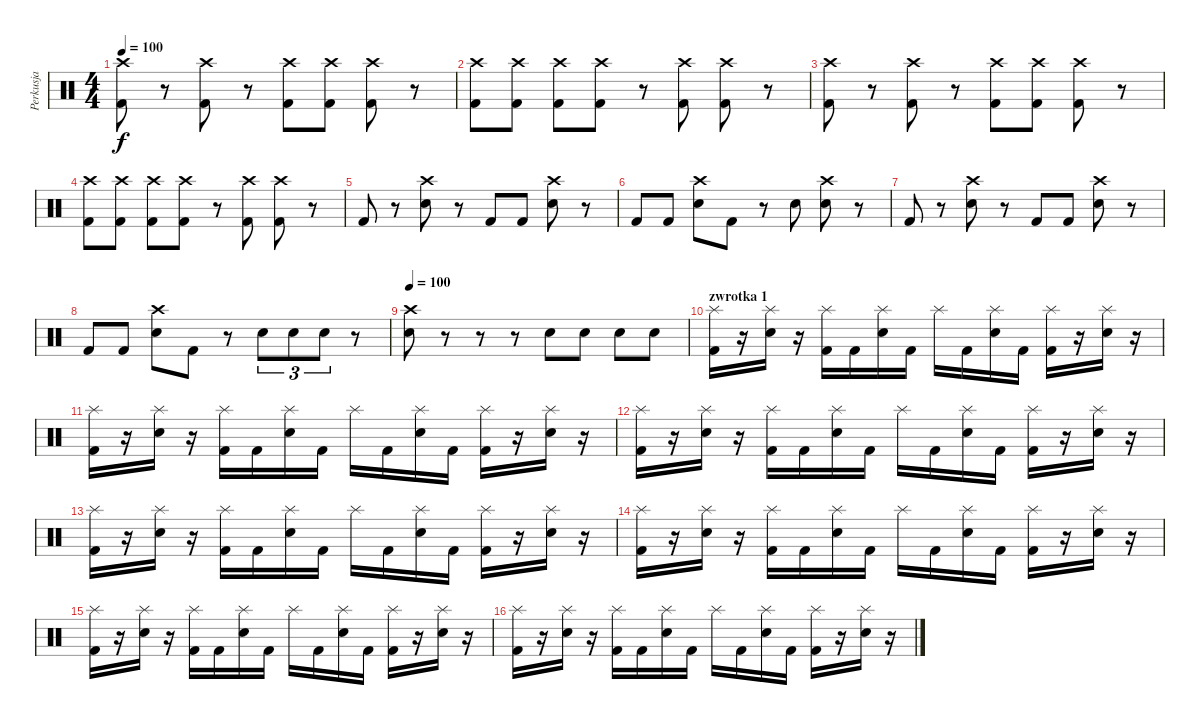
\track ("Perkusja" "Perkusja") {instrument percussion}
\staff {score}
\articulation defaults
\ts (4 4)
\tempo 100
\tempo 170
\tempo 100
\clef neutral
\ks c
("Crash high (hit)" "Kick (hit) 2").8{dy f} r.8 ("Crash high (hit)" "Kick (hit) 2").8 r.8 ("Crash high (hit)" "Kick (hit) 2").8 ("Crash high (hit)" "Kick (hit) 2").8 ("Crash high (hit)" "Kick (hit) 2").8 r.8 |
("Crash high (hit)" "Kick (hit) 2").8 ("Crash high (hit)" "Kick (hit) 2").8 ("Crash high (hit)" "Kick (hit) 2").8 ("Crash high (hit)" "Kick (hit) 2").8 r.8 ("Crash high (hit)" "Kick (hit) 2").8 ("Crash high (hit)" "Kick (hit) 2").8 r.8 |
("Crash high (hit)" "Kick (hit) 2").8 r.8 ("Crash high (hit)" "Kick (hit) 2").8 r.8 ("Crash high (hit)" "Kick (hit) 2").8 ("Crash high (hit)" "Kick (hit) 2").8 ("Crash high (hit)" "Kick (hit) 2").8 r.8 |
("Crash high (hit)" "Kick (hit) 2").8 ("Crash high (hit)" "Kick (hit) 2").8 ("Crash high (hit)" "Kick (hit) 2").8 ("Crash high (hit)" "Kick (hit) 2").8 r.8 ("Crash high (hit)" "Kick (hit) 2").8 ("Crash high (hit)" "Kick (hit) 2").8 r.8 |
"Kick (hit) 2".8 r.8 ("Crash high (hit)" "Snare (hit) 2").8 r.8 "Kick (hit) 2".8 "Kick (hit) 2".8 ("Crash high (hit)" "Snare (hit) 2").8 r.8 |
"Kick (hit) 2".8 "Kick (hit) 2".8 ("Crash high (hit)" "Snare (hit) 2").8 "Kick (hit) 2".8 r.8 "Snare (hit) 2".8 ("Crash high (hit)" "Snare (hit) 2").8 r.8 |
"Kick (hit) 2".8 r.8 ("Crash high (hit)" "Snare (hit) 2").8 r.8 "Kick (hit) 2".8 "Kick (hit) 2".8 ("Crash high (hit)" "Snare (hit) 2").8 r.8 |
"Kick (hit) 2".8 "Kick (hit) 2".8 ("Crash high (hit)" "Snare (hit) 2").8 "Kick (hit) 2".8 r.8 "Snare (hit) 2".8{tu (3 2)} "Snare (hit) 2".8{tu (3 2)} "Snare (hit) 2".8{tu (3 2)} r.8 |
\tempo 100
("Crash high (hit)" "Snare (hit) 2").8 r.8 r.8 r.8 "Snare (hit) 2".8 "Snare (hit) 2".8 "Snare (hit) 2".8 "Snare (hit) 2".8 |
\section ("" "zwrotka 1")
("Splash (hit)" "Kick (hit) 2").16 r.16 ("Splash (hit)" "Snare (hit) 2").16 r.16 ("Splash (hit)" "Kick (hit) 2").16 "Kick (hit) 2".16 ("Splash (hit)" "Snare (hit) 2").16 "Kick (hit) 2".16 "Splash (hit)".16 "Kick (hit) 2".16 ("Splash (hit)" "Snare (hit) 2").16 "Kick (hit) 2".16 ("Splash (hit)" "Kick (hit) 2").16 r.16 ("Splash (hit)" "Snare (hit) 2").16 r.16 |
("Splash (hit)" "Kick (hit) 2").16 r.16 ("Splash (hit)" "Snare (hit) 2").16 r.16 ("Splash (hit)" "Kick (hit) 2").16 "Kick (hit) 2".16 ("Splash (hit)" "Snare (hit) 2").16 "Kick (hit) 2".16 "Splash (hit)".16 "Kick (hit) 2".16 ("Splash (hit)" "Snare (hit) 2").16 "Kick (hit) 2".16 ("Splash (hit)" "Kick (hit) 2").16 r.16 ("Splash (hit)" "Snare (hit) 2").16 r.16 |
("Splash (hit)" "Kick (hit) 2").16 r.16 ("Splash (hit)" "Snare (hit) 2").16 r.16 ("Splash (hit)" "Kick (hit) 2").16 "Kick (hit) 2".16 ("Splash (hit)" "Snare (hit) 2").16 "Kick (hit) 2".16 "Splash (hit)".16 "Kick (hit) 2".16 ("Splash (hit)" "Snare (hit) 2").16 "Kick (hit) 2".16 ("Splash (hit)" "Kick (hit) 2").16 r.16 ("Splash (hit)" "Snare (hit) 2").16 r.16 |
("Splash (hit)" "Kick (hit) 2").16 r.16 ("Splash (hit)" "Snare (hit) 2").16 r.16 ("Splash (hit)" "Kick (hit) 2").16 "Kick (hit) 2".16 ("Splash (hit)" "Snare (hit) 2").16 "Kick (hit) 2".16 "Splash (hit)".16 "Kick (hit) 2".16 ("Splash (hit)" "Snare (hit) 2").16 "Kick (hit) 2".16 ("Splash (hit)" "Kick (hit) 2").16 r.16 ("Splash (hit)" "Snare (hit) 2").16 r.16 |
("Splash (hit)" "Kick (hit) 2").16 r.16 ("Splash (hit)" "Snare (hit) 2").16 r.16 ("Splash (hit)" "Kick (hit) 2").16 "Kick (hit) 2".16 ("Splash (hit)" "Snare (hit) 2").16 "Kick (hit) 2".16 "Splash (hit)".16 "Kick (hit) 2".16 ("Splash (hit)" "Snare (hit) 2").16 "Kick (hit) 2".16 ("Splash (hit)" "Kick (hit) 2").16 r.16 ("Splash (hit)" "Snare (hit) 2").16 r.16 |
("Splash (hit)" "Kick (hit) 2").16 r.16 ("Splash (hit)" "Snare (hit) 2").16 r.16 ("Splash (hit)" "Kick (hit) 2").16 "Kick (hit) 2".16 ("Splash (hit)" "Snare (hit) 2").16 "Kick (hit) 2".16 "Splash (hit)".16 "Kick (hit) 2".16 ("Splash (hit)" "Snare (hit) 2").16 "Kick (hit) 2".16 ("Splash (hit)" "Kick (hit) 2").16 r.16 ("Splash (hit)" "Snare (hit) 2").16 r.16 |
("Splash (hit)" "Kick (hit) 2").16 r.16 ("Splash (hit)" "Snare (hit) 2").16 r.16 ("Splash (hit)" "Kick (hit) 2").16 "Kick (hit) 2".16 ("Splash (hit)" "Snare (hit) 2").16 "Kick (hit) 2".16 "Splash (hit)".16 "Kick (hit) 2".16 ("Splash (hit)" "Snare (hit) 2").16 "Kick (hit) 2".16 ("Splash (hit)" "Kick (hit) 2").16 r.16 ("Splash (hit)" "Snare (hit) 2").16 r.16
